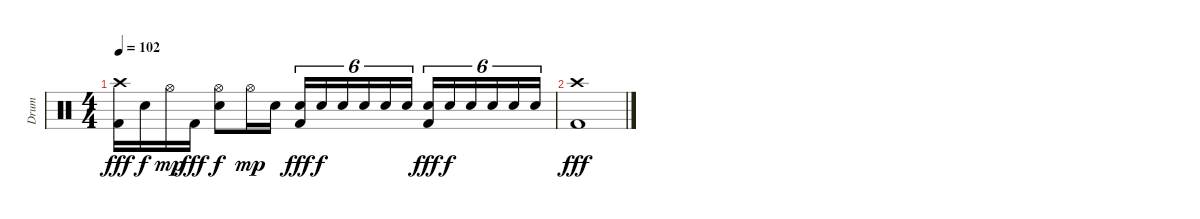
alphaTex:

\track ("Drum" "Drum") {instrument percussion}
\staff {score}
\articulation defaults
\ts (4 4)
\tempo 102
\clef neutral
\ks c
("Crash high (hit)" "Kick (hit) 2").16{dy fff} "Electric Snare (hit)".16{dy f} "Hi-Hat (open)".16{dy mp} "Kick (hit) 2".16{dy fff} ("Hi-Hat (open)" "Electric Snare (hit)").8{dy f} "Hi-Hat (open)".16{dy mp} "Electric Snare (hit)".16 ("Electric Snare (hit)" "Kick (hit) 2").16{tu (6 4) dy fff} "Electric Snare (hit)".16{tu (6 4) dy f} "Electric Snare (hit)".16{tu (6 4)} "Electric Snare (hit)".16{tu (6 4)} "Electric Snare (hit)".16{tu (6 4)} "Electric Snare (hit)".16{tu (6 4)} ("Electric Snare (hit)" "Kick (hit) 2").16{tu (6 4) dy fff} "Electric Snare (hit)".16{tu (6 4) dy f} "Electric Snare (hit)".16{tu (6 4)} "Electric Snare (hit)".16{tu (6 4)} "Electric Snare (hit)".16{tu (6 4)} "Electric Snare (hit)".16{tu (6 4)} |
("Crash high (hit)" "Kick (hit) 2").1{dy fff}
